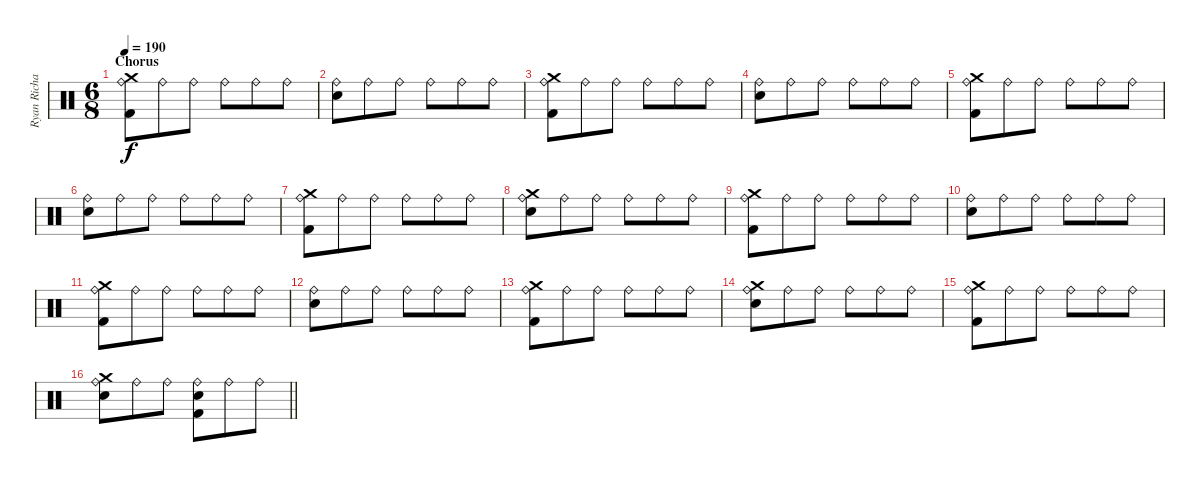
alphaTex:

\track ("Ryan Richards" "Ryan Richa") {instrument percussion bank 127}
\staff {score}
\articulation defaults
\ts (6 8)
\section ("" "Chorus")
\tempo 190
\clef neutral
\ks c
("Crash medium (hit)" "Ride (bell)" "Kick (hit) 2").8{dy f} "Ride (bell)".8 "Ride (bell)".8 "Ride (bell)".8 "Ride (bell)".8 "Ride (bell)".8 |
("Ride (bell)" "Snare (hit) 2").8 "Ride (bell)".8 "Ride (bell)".8 "Ride (bell)".8 "Ride (bell)".8 "Ride (bell)".8 |
("Crash medium (hit)" "Ride (bell)" "Kick (hit) 2").8 "Ride (bell)".8 "Ride (bell)".8 "Ride (bell)".8 "Ride (bell)".8 "Ride (bell)".8 |
("Ride (bell)" "Snare (hit) 2").8 "Ride (bell)".8 "Ride (bell)".8 "Ride (bell)".8 "Ride (bell)".8 "Ride (bell)".8 |
("Crash medium (hit)" "Ride (bell)" "Kick (hit) 2").8 "Ride (bell)".8 "Ride (bell)".8 "Ride (bell)".8 "Ride (bell)".8 "Ride (bell)".8 |
("Ride (bell)" "Snare (hit) 2").8 "Ride (bell)".8 "Ride (bell)".8 "Ride (bell)".8 "Ride (bell)".8 "Ride (bell)".8 |
("Crash medium (hit)" "Ride (bell)" "Kick (hit) 2").8 "Ride (bell)".8 "Ride (bell)".8 "Ride (bell)".8 "Ride (bell)".8 "Ride (bell)".8 |
("Crash medium (hit)" "Ride (bell)" "Snare (hit) 2").8 "Ride (bell)".8 "Ride (bell)".8 "Ride (bell)".8 "Ride (bell)".8 "Ride (bell)".8 |
("Crash medium (hit)" "Ride (bell)" "Kick (hit) 2").8 "Ride (bell)".8 "Ride (bell)".8 "Ride (bell)".8 "Ride (bell)".8 "Ride (bell)".8 |
("Ride (bell)" "Snare (hit) 2").8 "Ride (bell)".8 "Ride (bell)".8 "Ride (bell)".8 "Ride (bell)".8 "Ride (bell)".8 |
("Crash medium (hit)" "Ride (bell)" "Kick (hit) 2").8 "Ride (bell)".8 "Ride (bell)".8 "Ride (bell)".8 "Ride (bell)".8 "Ride (bell)".8 |
("Ride (bell)" "Snare (hit) 2").8 "Ride (bell)".8 "Ride (bell)".8 "Ride (bell)".8 "Ride (bell)".8 "Ride (bell)".8 |
("Crash medium (hit)" "Ride (bell)" "Kick (hit) 2").8 "Ride (bell)".8 "Ride (bell)".8 "Ride (bell)".8 "Ride (bell)".8 "Ride (bell)".8 |
("Crash medium (hit)" "Ride (bell)" "Snare (hit) 2").8 "Ride (bell)".8 "Ride (bell)".8 "Ride (bell)".8 "Ride (bell)".8 "Ride (bell)".8 |
("Crash medium (hit)" "Ride (bell)" "Kick (hit) 2").8 "Ride (bell)".8 "Ride (bell)".8 "Ride (bell)".8 "Ride (bell)".8 "Ride (bell)".8 |
\barLineRight lightlight
("Crash medium (hit)" "Ride (bell)" "Snare (hit) 2").8 "Ride (bell)".8 "Ride (bell)".8 ("Kick (hit) 2" "Ride (bell)" "Snare (hit) 2").8 "Ride (bell)".8 "Ride (bell)".8
